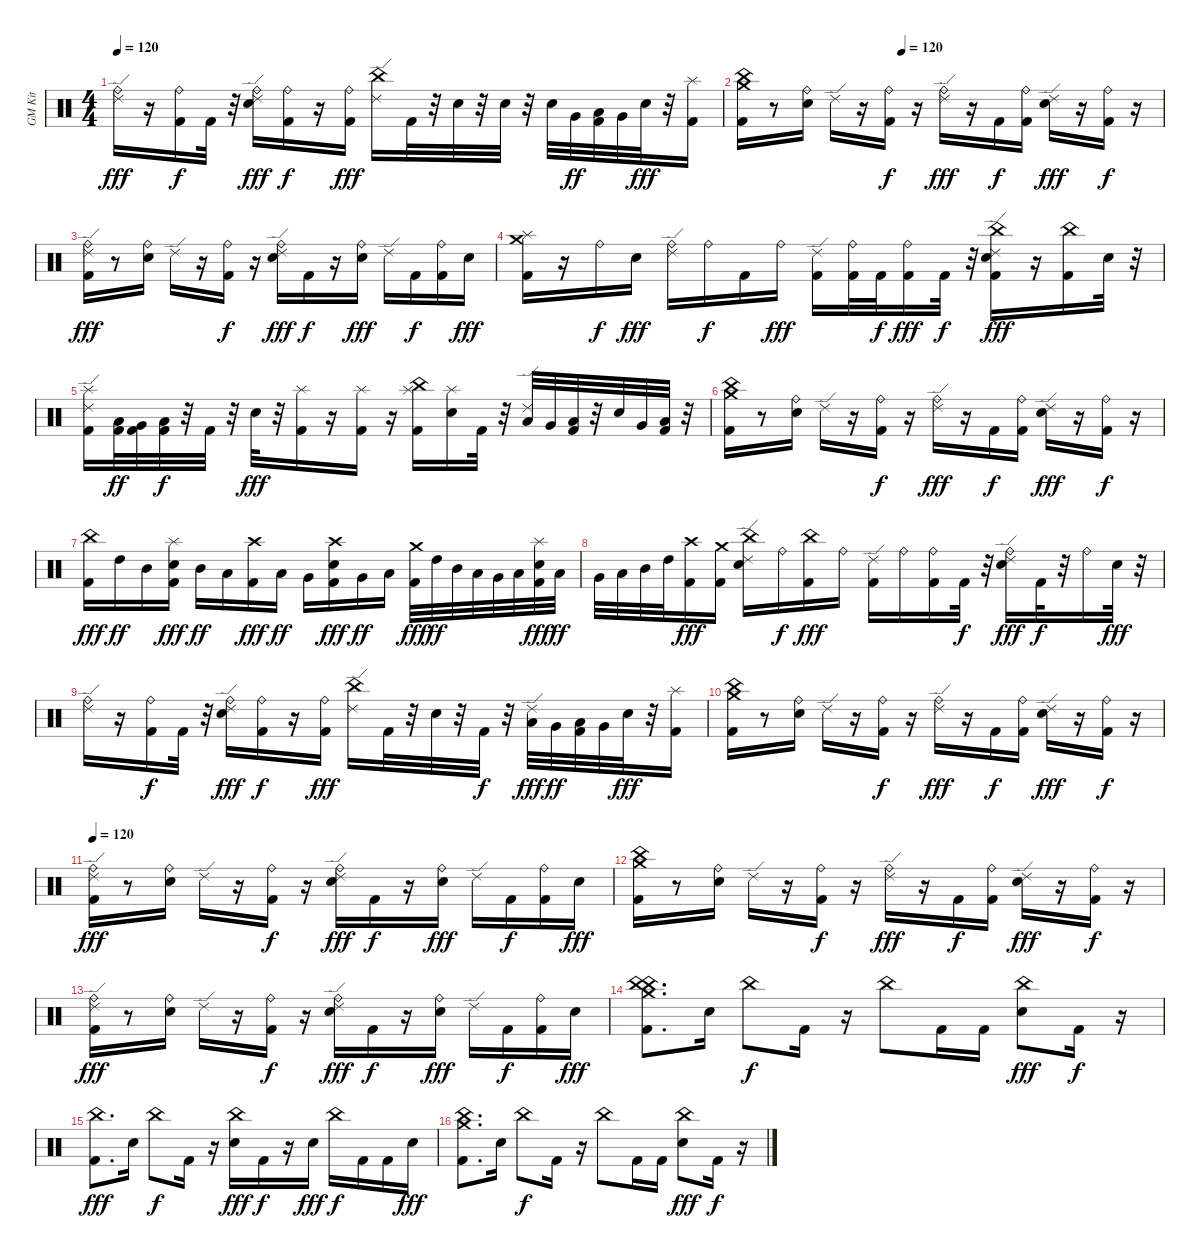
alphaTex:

\track ("GM Kit" "GM Kit") {instrument percussion}
\staff {score}
\articulation defaults
\ts (4 4)
\tempo 120
\clef neutral
\ks c
("Ride (bell)" "Ride (edge) 2").16{dy fff} r.16 ("Kick (hit) 2" "Ride (bell)").16{dy f} "Kick (hit) 2".32 r.32 ("Snare (hit) 2" "Ride (bell)" "Ride (edge) 2").16{dy fff} ("Kick (hit) 2" "Ride (bell)").16{dy f} r.16 ("Kick (hit) 2" "Ride (bell)").16{dy fff} ("China (hit)" "Ride (edge) 2").16 "Kick (hit) 2".32 r.32 "Snare (hit) 2".32 r.32 "Snare (hit) 2".32 r.32 "Snare (hit) 2".32 "Very Low Tom (hit)".32{dy ff} ("Kick (hit) 2" "Low Tom (hit)").32 "Very Low Tom (hit)".32 "Snare (hit) 2".32{dy fff} r.32 ("Kick (hit) 2" "Splash (hit)").16 |
\tempo (120 0.375)
("Kick (hit) 2" "China (hit)" "Crash medium (hit)").16 r.8 ("Snare (hit) 2" "Ride (bell)").16 "Ride (edge) 2".16 r.16 ("Kick (hit) 2" "Ride (bell)").16{dy f} r.16 ("Ride (bell)" "Ride (edge) 2").16{dy fff} r.16 "Kick (hit) 2".16{dy f} ("Kick (hit) 2" "Ride (bell)").16 ("Snare (hit) 2" "Ride (edge) 2").16{dy fff} r.16 ("Kick (hit) 2" "Ride (bell)").16{dy f} r.16 |
("Kick (hit) 2" "Ride (bell)" "Ride (edge) 2").16{dy fff} r.8 ("Snare (hit) 2" "Ride (bell)").16 "Ride (edge) 2".16 r.16 ("Kick (hit) 2" "Ride (bell)").16{dy f} r.16 ("Snare (hit) 2" "Ride (bell)" "Ride (edge) 2").16{dy fff} "Kick (hit) 2".16{dy f} r.16 ("Snare (hit) 2" "Ride (bell)").16{dy fff} "Ride (edge) 2".16 "Kick (hit) 2".16{dy f} ("Kick (hit) 2" "Ride (bell)").16 "Snare (hit) 2".16{dy fff} |
("Kick (hit) 2" "Splash (hit)" "Crash medium (hit)").16 r.16 "Ride (bell)".16{dy f} "Snare (hit) 2".16{dy fff} ("Ride (bell)" "Ride (edge) 2").16 "Ride (bell)".16{dy f} "Kick (hit) 2".16 "Ride (bell)".16{dy fff} ("Kick (hit) 2" "Ride (edge) 2").16 ("Kick (hit) 2" "Ride (bell)").32 "Kick (hit) 2".32{dy f} ("Kick (hit) 2" "Ride (bell)").16{dy fff} "Kick (hit) 2".32{dy f} r.32 ("Kick (hit) 2" "Snare (hit) 2" "China (hit)" "Ride (edge) 2").16{dy fff} r.16 ("Kick (hit) 2" "China (hit)").16 "Snare (hit) 2".32 r.32 |
("Kick (hit) 2" "Splash (hit)" "Ride (edge) 2").16 ("Kick (hit) 2" "Low Tom (hit)").32{dy ff} ("Kick (hit) 2" "Very Low Tom (hit)").32 ("Kick (hit) 2" "Low Floor Tom (hit)").32{dy f} r.32 "Kick (hit) 2".32 r.32 "Snare (hit) 2".32{dy fff} r.32 ("Kick (hit) 2" "Splash (hit)").16 r.16 ("Kick (hit) 2" "Splash (hit)").16 r.16 ("Kick (hit) 2" "China (hit)" "Splash (hit)").16 ("Snare (hit) 2" "Splash (hit)").16 "Kick (hit) 2".32 r.32 ("Low Tom (hit)" "Ride (edge) 2").32 "Very Low Tom (hit)".32 ("Kick (hit) 2" "Low Tom (hit)").32 r.32 "Snare (hit) 2".32 "Very Low Tom (hit)".32 ("Kick (hit) 2" "Low Tom (hit)").32 r.32 |
("Kick (hit) 2" "China (hit)" "Crash medium (hit)").16 r.8 ("Snare (hit) 2" "Ride (bell)").16 "Ride (edge) 2".16 r.16 ("Kick (hit) 2" "Ride (bell)").16{dy f} r.16 ("Ride (bell)" "Ride (edge) 2").16{dy fff} r.16 "Kick (hit) 2".16{dy f} ("Kick (hit) 2" "Ride (bell)").16 ("Snare (hit) 2" "Ride (edge) 2").16{dy fff} r.16 ("Kick (hit) 2" "Ride (bell)").16{dy f} r.16 |
("Kick (hit) 2" "China (hit)").16{dy fff} "High Tom (hit)".16{dy ff} "Mid Tom (hit)".16 ("Kick (hit) 2" "Snare (hit) 2" "Splash (hit)").16{dy fff} "Mid Tom (hit)".16{dy ff} "Low Tom (hit)".16 ("Kick (hit) 2" "Crash high (hit)").16{dy fff} "Low Tom (hit)".16{dy ff} "Very Low Tom (hit)".16 ("Kick (hit) 2" "Snare (hit) 2" "Crash high (hit)").16{dy fff} "Very Low Tom (hit)".16{dy ff} "Low Floor Tom (hit)".16 ("Kick (hit) 2" "Crash medium (hit)").32{dy fff} "High Tom (hit)".32{dy ff} "Mid Tom (hit)".32 "Low Tom (hit)".32 "Very Low Tom (hit)".32 "Low Floor Tom (hit)".32 ("Kick (hit) 2" "Snare (hit) 2" "Splash (hit)").32{dy fff} "Low Floor Tom (hit)".32{dy ff} |
"Very Low Tom (hit)".32 "Low Tom (hit)".32 "Mid Tom (hit)".32 "High Tom (hit)".32 ("Kick (hit) 2" "Crash high (hit)").16{dy fff} ("Kick (hit) 2" "Crash medium (hit)").16 ("Snare (hit) 2" "China (hit)" "Ride (edge) 2").16 "Ride (bell)".16{dy f} ("Kick (hit) 2" "China (hit)").16{dy fff} "Ride (bell)".16 ("Kick (hit) 2" "Ride (edge) 2").16 "Ride (bell)".16 ("Kick (hit) 2" "Ride (bell)").16 "Kick (hit) 2".32{dy f} r.32 ("Snare (hit) 2" "Ride (bell)" "Ride (edge) 2").16{dy fff} "Kick (hit) 2".32{dy f} r.32 "Ride (bell)".16 "Snare (hit) 2".32{dy fff} r.32 |
("Ride (bell)" "Ride (edge) 2").16 r.16 ("Kick (hit) 2" "Ride (bell)").16{dy f} "Kick (hit) 2".32 r.32 ("Snare (hit) 2" "Ride (bell)" "Ride (edge) 2").16{dy fff} ("Kick (hit) 2" "Ride (bell)").16{dy f} r.16 ("Kick (hit) 2" "Ride (bell)").16{dy fff} ("China (hit)" "Ride (edge) 2").16 "Kick (hit) 2".32 r.32 "Snare (hit) 2".32 r.32 "Kick (hit) 2".32{dy f} r.32 ("Low Tom (hit)" "Ride (edge) 2").32{dy fff} "Very Low Tom (hit)".32{dy ff} ("Kick (hit) 2" "Low Tom (hit)").32 "Very Low Tom (hit)".32 "Snare (hit) 2".32{dy fff} r.32 ("Kick (hit) 2" "Splash (hit)").16 |
("Kick (hit) 2" "China (hit)" "Crash medium (hit)").16 r.8 ("Snare (hit) 2" "Ride (bell)").16 "Ride (edge) 2".16 r.16 ("Kick (hit) 2" "Ride (bell)").16{dy f} r.16 ("Ride (bell)" "Ride (edge) 2").16{dy fff} r.16 "Kick (hit) 2".16{dy f} ("Kick (hit) 2" "Ride (bell)").16 ("Snare (hit) 2" "Ride (edge) 2").16{dy fff} r.16 ("Kick (hit) 2" "Ride (bell)").16{dy f} r.16 |
\tempo 120
("Kick (hit) 2" "Ride (bell)" "Ride (edge) 2").16{dy fff} r.8 ("Snare (hit) 2" "Ride (bell)").16 "Ride (edge) 2".16 r.16 ("Kick (hit) 2" "Ride (bell)").16{dy f} r.16 ("Snare (hit) 2" "Ride (bell)" "Ride (edge) 2").16{dy fff} "Kick (hit) 2".16{dy f} r.16 ("Snare (hit) 2" "Ride (bell)").16{dy fff} "Ride (edge) 2".16 "Kick (hit) 2".16{dy f} ("Kick (hit) 2" "Ride (bell)").16 "Snare (hit) 2".16{dy fff} |
("Kick (hit) 2" "China (hit)" "Crash medium (hit)").16 r.8 ("Snare (hit) 2" "Ride (bell)").16 "Ride (edge) 2".16 r.16 ("Kick (hit) 2" "Ride (bell)").16{dy f} r.16 ("Ride (bell)" "Ride (edge) 2").16{dy fff} r.16 "Kick (hit) 2".16{dy f} ("Kick (hit) 2" "Ride (bell)").16 ("Snare (hit) 2" "Ride (edge) 2").16{dy fff} r.16 ("Kick (hit) 2" "Ride (bell)").16{dy f} r.16 |
("Kick (hit) 2" "Ride (bell)" "Ride (edge) 2").16{dy fff} r.8 ("Snare (hit) 2" "Ride (bell)").16 "Ride (edge) 2".16 r.16 ("Kick (hit) 2" "Ride (bell)").16{dy f} r.16 ("Snare (hit) 2" "Ride (bell)" "Ride (edge) 2").16{dy fff} "Kick (hit) 2".16{dy f} r.16 ("Snare (hit) 2" "Ride (bell)").16{dy fff} "Ride (edge) 2".16 "Kick (hit) 2".16{dy f} ("Kick (hit) 2" "Ride (bell)").16 "Snare (hit) 2".16{dy fff} |
("Kick (hit) 2" "China (hit)" "China (hit)" "Crash medium (hit)").8{d} "Snare (hit) 2".16 "China (hit)".8{dy f} "Kick (hit) 2".16 r.16 "China (hit)".8 "Kick (hit) 2".16 "Kick (hit) 2".16 ("Snare (hit) 2" "China (hit)").8{dy fff} "Kick (hit) 2".16{dy f} r.16 |
("Kick (hit) 2" "China (hit)").8{d dy fff} "Snare (hit) 2".16 "China (hit)".8{dy f} "Kick (hit) 2".16 r.16 ("Snare (hit) 2" "China (hit)").16{dy fff} "Kick (hit) 2".16{dy f} r.16 "Snare (hit) 2".16{dy fff} "China (hit)".16{dy f} "Kick (hit) 2".16 "Kick (hit) 2".16 "Snare (hit) 2".16{dy fff} |
("Kick (hit) 2" "China (hit)" "Crash medium (hit)").8{d} "Snare (hit) 2".16 "China (hit)".8{dy f} "Kick (hit) 2".16 r.16 "China (hit)".8 "Kick (hit) 2".16 "Kick (hit) 2".16 ("Snare (hit) 2" "China (hit)").8{dy fff} "Kick (hit) 2".16{dy f} r.16
